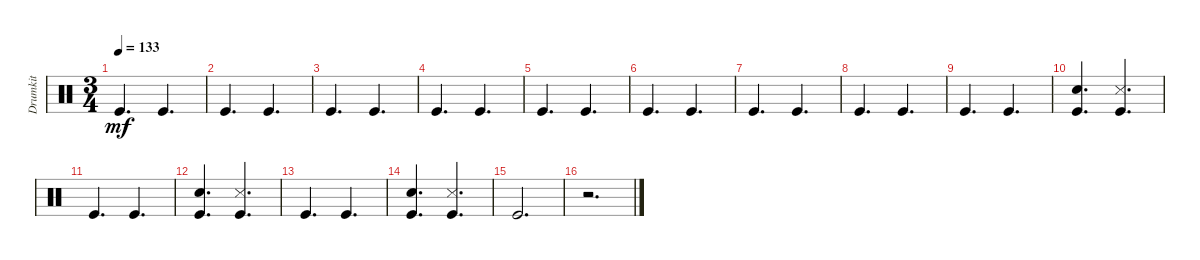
\track ("Drumkit" "Drumkit") {instrument percussion}
\staff {score}
\articulation defaults
\ts (3 4)
\tempo 133
\clef neutral
\ks c "Kick (hit)".4{d dy mf} "Kick (hit)".4{d}
|
"Kick (hit)".4{d} "Kick (hit)".4{d} |
"Kick (hit)".4{d} "Kick (hit)".4{d} |
"Kick (hit)".4{d} "Kick (hit)".4{d} |
"Kick (hit)".4{d} "Kick (hit)".4{d} |
"Kick (hit)".4{d} "Kick (hit)".4{d} |
"Kick (hit)".4{d} "Kick (hit)".4{d} |
"Kick (hit)".4{d} "Kick (hit)".4{d} |
"Kick (hit)".4{d} "Kick (hit)".4{d} |
("Kick (hit)" "Snare (hit) 2").4{d} ("Kick (hit)" "Snare (side stick) 3").4{d} |
"Kick (hit)".4{d} "Kick (hit)".4{d} |
("Kick (hit)" "Snare (hit) 2").4{d} ("Kick (hit)" "Snare (side stick) 3").4{d} |
"Kick (hit)".4{d} "Kick (hit)".4{d} |
("Kick (hit)" "Snare (hit) 2").4{d} ("Kick (hit)" "Snare (side stick) 3").4{d} |
"Kick (hit)".2{d} |
r.2{d}
